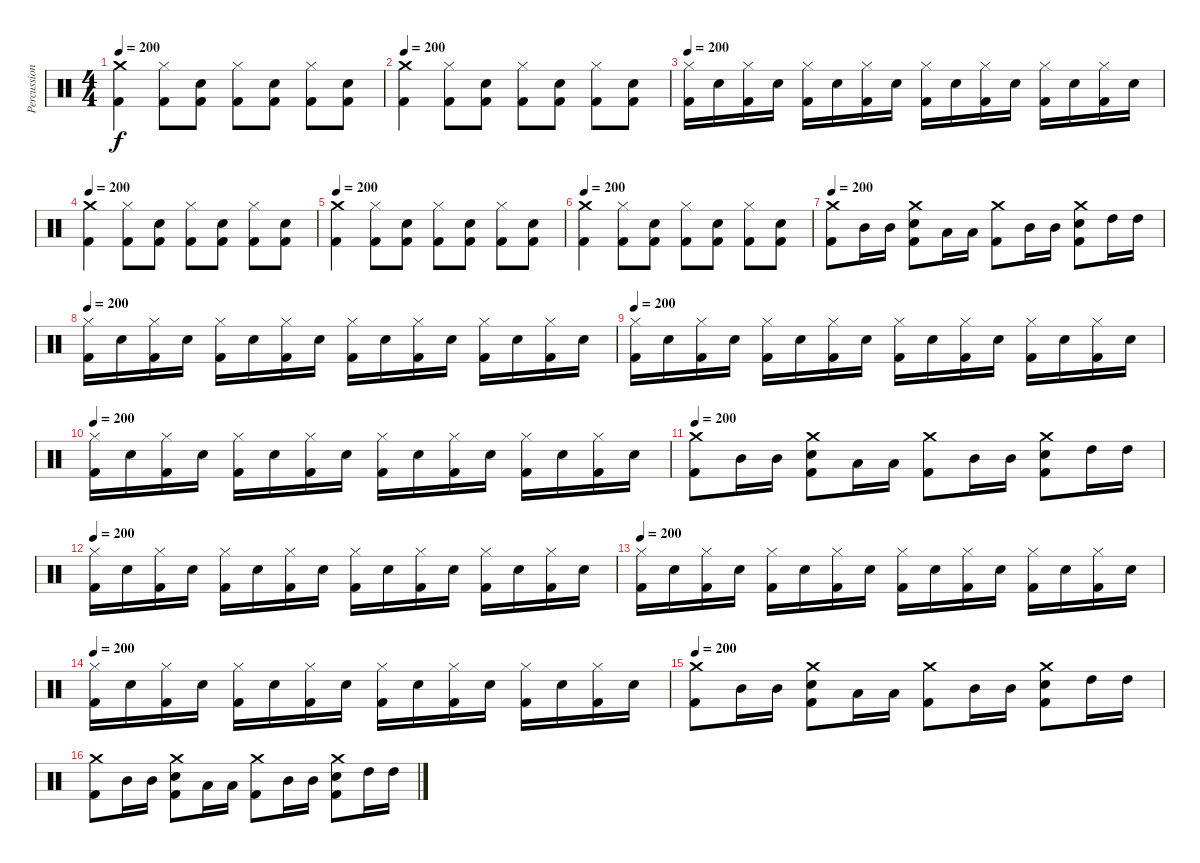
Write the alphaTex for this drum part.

\track ("Percussion" "Percussion") {instrument percussion}
\staff {score}
\articulation defaults
\ts (4 4)
\tempo 200
\clef neutral
\ks c
("Crash medium (hit)" "Kick (hit) 2").4{dy f} ("Hi-Hat (closed)" "Kick (hit) 2").8 ("Electric Snare (hit)" "Kick (hit) 2").8 ("Hi-Hat (closed)" "Kick (hit) 2").8 ("Electric Snare (hit)" "Kick (hit) 2").8 ("Hi-Hat (closed)" "Kick (hit) 2").8 ("Electric Snare (hit)" "Kick (hit) 2").8 |
\tempo 200
("Crash medium (hit)" "Kick (hit) 2").4 ("Hi-Hat (closed)" "Kick (hit) 2").8 ("Electric Snare (hit)" "Kick (hit) 2").8 ("Hi-Hat (closed)" "Kick (hit) 2").8 ("Electric Snare (hit)" "Kick (hit) 2").8 ("Hi-Hat (closed)" "Kick (hit) 2").8 ("Electric Snare (hit)" "Kick (hit) 2").8 |
\tempo 200
("Hi-Hat (closed)" "Kick (hit) 2").16 "Electric Snare (hit)".16 ("Hi-Hat (closed)" "Kick (hit) 2").16 "Electric Snare (hit)".16 ("Hi-Hat (closed)" "Kick (hit) 2").16 "Electric Snare (hit)".16 ("Hi-Hat (closed)" "Kick (hit) 2").16 "Electric Snare (hit)".16 ("Hi-Hat (closed)" "Kick (hit) 2").16 "Electric Snare (hit)".16 ("Hi-Hat (closed)" "Kick (hit) 2").16 "Electric Snare (hit)".16 ("Hi-Hat (closed)" "Kick (hit) 2").16 "Electric Snare (hit)".16 ("Hi-Hat (closed)" "Kick (hit) 2").16 "Electric Snare (hit)".16 |
\tempo 200
("Crash medium (hit)" "Kick (hit) 2").4 ("Hi-Hat (closed)" "Kick (hit) 2").8 ("Electric Snare (hit)" "Kick (hit) 2").8 ("Hi-Hat (closed)" "Kick (hit) 2").8 ("Electric Snare (hit)" "Kick (hit) 2").8 ("Hi-Hat (closed)" "Kick (hit) 2").8 ("Electric Snare (hit)" "Kick (hit) 2").8 |
\tempo 200
("Crash medium (hit)" "Kick (hit) 2").4 ("Hi-Hat (closed)" "Kick (hit) 2").8 ("Electric Snare (hit)" "Kick (hit) 2").8 ("Hi-Hat (closed)" "Kick (hit) 2").8 ("Electric Snare (hit)" "Kick (hit) 2").8 ("Hi-Hat (closed)" "Kick (hit) 2").8 ("Electric Snare (hit)" "Kick (hit) 2").8 |
\tempo 200
("Crash medium (hit)" "Kick (hit) 2").4 ("Hi-Hat (closed)" "Kick (hit) 2").8 ("Electric Snare (hit)" "Kick (hit) 2").8 ("Hi-Hat (closed)" "Kick (hit) 2").8 ("Electric Snare (hit)" "Kick (hit) 2").8 ("Hi-Hat (closed)" "Kick (hit) 2").8 ("Electric Snare (hit)" "Kick (hit) 2").8 |
\tempo 200
("Crash medium (hit)" "Kick (hit) 2").8 "Mid Tom (hit)".16 "Mid Tom (hit)".16 ("Crash medium (hit)" "Electric Snare (hit)" "Kick (hit) 2").8 "Low Tom (hit)".16 "Low Tom (hit)".16 ("Crash medium (hit)" "Kick (hit) 2").8 "Mid Tom (hit)".16 "Mid Tom (hit)".16 ("Crash medium (hit)" "Electric Snare (hit)" "Kick (hit) 2").8 "High Tom (hit)".16 "High Tom (hit)".16 |
\tempo 200
("Hi-Hat (closed)" "Kick (hit) 2").16 "Electric Snare (hit)".16 ("Hi-Hat (closed)" "Kick (hit) 2").16 "Electric Snare (hit)".16 ("Hi-Hat (closed)" "Kick (hit) 2").16 "Electric Snare (hit)".16 ("Hi-Hat (closed)" "Kick (hit) 2").16 "Electric Snare (hit)".16 ("Hi-Hat (closed)" "Kick (hit) 2").16 "Electric Snare (hit)".16 ("Hi-Hat (closed)" "Kick (hit) 2").16 "Electric Snare (hit)".16 ("Hi-Hat (closed)" "Kick (hit) 2").16 "Electric Snare (hit)".16 ("Hi-Hat (closed)" "Kick (hit) 2").16 "Electric Snare (hit)".16 |
\tempo 200
("Hi-Hat (closed)" "Kick (hit) 2").16 "Electric Snare (hit)".16 ("Hi-Hat (closed)" "Kick (hit) 2").16 "Electric Snare (hit)".16 ("Hi-Hat (closed)" "Kick (hit) 2").16 "Electric Snare (hit)".16 ("Hi-Hat (closed)" "Kick (hit) 2").16 "Electric Snare (hit)".16 ("Hi-Hat (closed)" "Kick (hit) 2").16 "Electric Snare (hit)".16 ("Hi-Hat (closed)" "Kick (hit) 2").16 "Electric Snare (hit)".16 ("Hi-Hat (closed)" "Kick (hit) 2").16 "Electric Snare (hit)".16 ("Hi-Hat (closed)" "Kick (hit) 2").16 "Electric Snare (hit)".16 |
\tempo 200
("Hi-Hat (closed)" "Kick (hit) 2").16 "Electric Snare (hit)".16 ("Hi-Hat (closed)" "Kick (hit) 2").16 "Electric Snare (hit)".16 ("Hi-Hat (closed)" "Kick (hit) 2").16 "Electric Snare (hit)".16 ("Hi-Hat (closed)" "Kick (hit) 2").16 "Electric Snare (hit)".16 ("Hi-Hat (closed)" "Kick (hit) 2").16 "Electric Snare (hit)".16 ("Hi-Hat (closed)" "Kick (hit) 2").16 "Electric Snare (hit)".16 ("Hi-Hat (closed)" "Kick (hit) 2").16 "Electric Snare (hit)".16 ("Hi-Hat (closed)" "Kick (hit) 2").16 "Electric Snare (hit)".16 |
\tempo 200
("Crash medium (hit)" "Kick (hit) 2").8 "Mid Tom (hit)".16 "Mid Tom (hit)".16 ("Crash medium (hit)" "Electric Snare (hit)" "Kick (hit) 2").8 "Low Tom (hit)".16 "Low Tom (hit)".16 ("Crash medium (hit)" "Kick (hit) 2").8 "Mid Tom (hit)".16 "Mid Tom (hit)".16 ("Crash medium (hit)" "Electric Snare (hit)" "Kick (hit) 2").8 "High Tom (hit)".16 "High Tom (hit)".16 |
\tempo 200
("Hi-Hat (closed)" "Kick (hit) 2").16 "Electric Snare (hit)".16 ("Hi-Hat (closed)" "Kick (hit) 2").16 "Electric Snare (hit)".16 ("Hi-Hat (closed)" "Kick (hit) 2").16 "Electric Snare (hit)".16 ("Hi-Hat (closed)" "Kick (hit) 2").16 "Electric Snare (hit)".16 ("Hi-Hat (closed)" "Kick (hit) 2").16 "Electric Snare (hit)".16 ("Hi-Hat (closed)" "Kick (hit) 2").16 "Electric Snare (hit)".16 ("Hi-Hat (closed)" "Kick (hit) 2").16 "Electric Snare (hit)".16 ("Hi-Hat (closed)" "Kick (hit) 2").16 "Electric Snare (hit)".16 |
\tempo 200
("Hi-Hat (closed)" "Kick (hit) 2").16 "Electric Snare (hit)".16 ("Hi-Hat (closed)" "Kick (hit) 2").16 "Electric Snare (hit)".16 ("Hi-Hat (closed)" "Kick (hit) 2").16 "Electric Snare (hit)".16 ("Hi-Hat (closed)" "Kick (hit) 2").16 "Electric Snare (hit)".16 ("Hi-Hat (closed)" "Kick (hit) 2").16 "Electric Snare (hit)".16 ("Hi-Hat (closed)" "Kick (hit) 2").16 "Electric Snare (hit)".16 ("Hi-Hat (closed)" "Kick (hit) 2").16 "Electric Snare (hit)".16 ("Hi-Hat (closed)" "Kick (hit) 2").16 "Electric Snare (hit)".16 |
\tempo 200
("Hi-Hat (closed)" "Kick (hit) 2").16 "Electric Snare (hit)".16 ("Hi-Hat (closed)" "Kick (hit) 2").16 "Electric Snare (hit)".16 ("Hi-Hat (closed)" "Kick (hit) 2").16 "Electric Snare (hit)".16 ("Hi-Hat (closed)" "Kick (hit) 2").16 "Electric Snare (hit)".16 ("Hi-Hat (closed)" "Kick (hit) 2").16 "Electric Snare (hit)".16 ("Hi-Hat (closed)" "Kick (hit) 2").16 "Electric Snare (hit)".16 ("Hi-Hat (closed)" "Kick (hit) 2").16 "Electric Snare (hit)".16 ("Hi-Hat (closed)" "Kick (hit) 2").16 "Electric Snare (hit)".16 |
\tempo 200
("Crash medium (hit)" "Kick (hit) 2").8 "Mid Tom (hit)".16 "Mid Tom (hit)".16 ("Crash medium (hit)" "Electric Snare (hit)" "Kick (hit) 2").8 "Low Tom (hit)".16 "Low Tom (hit)".16 ("Crash medium (hit)" "Kick (hit) 2").8 "Mid Tom (hit)".16 "Mid Tom (hit)".16 ("Crash medium (hit)" "Electric Snare (hit)" "Kick (hit) 2").8 "High Tom (hit)".16 "High Tom (hit)".16 |
("Crash medium (hit)" "Kick (hit) 2").8 "Mid Tom (hit)".16 "Mid Tom (hit)".16 ("Crash medium (hit)" "Electric Snare (hit)" "Kick (hit) 2").8 "Low Tom (hit)".16 "Low Tom (hit)".16 ("Crash medium (hit)" "Kick (hit) 2").8 "Mid Tom (hit)".16 "Mid Tom (hit)".16 ("Crash medium (hit)" "Electric Snare (hit)" "Kick (hit) 2").8 "High Tom (hit)".16 "High Tom (hit)".16
